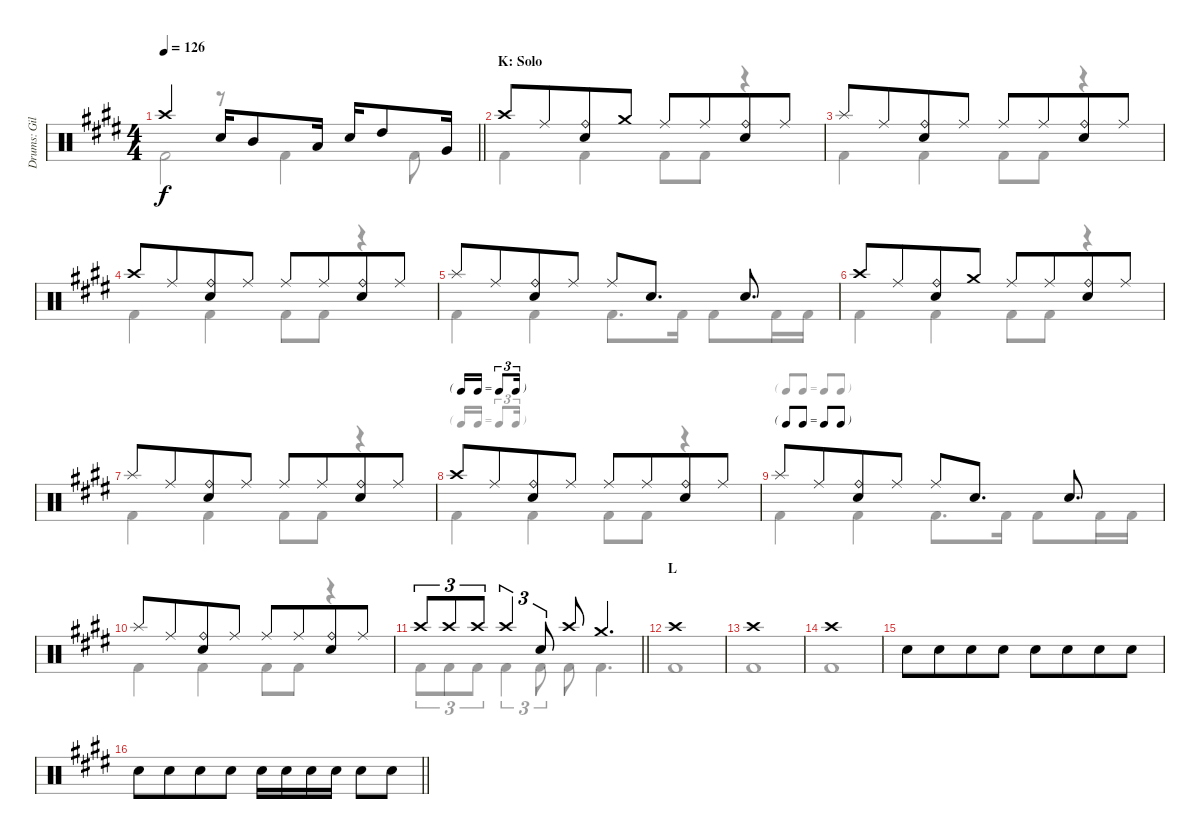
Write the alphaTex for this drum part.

\track ("Drums: Gil" "Drums: Gil") {instrument percussion}
\staff {score}
\articulation defaults
\voice
\ts (4 4)
\tempo 126
\clef neutral
\barLineRight lightlight
\ks e "Crash high (hit)".2{dy f} "Snare (hit) 2".16 "Mid Tom (hit)".8 "Low Tom (hit)".16 "Snare (hit) 2".16 "High Tom (hit)".8 "Very Low Tom (hit)".16
|
\section ("" "K: Solo")
"Crash high (hit)".8 "Ride (middle)".8{beam merge} ("Ride (bell)" "Snare (hit) 2").8 "Crash medium (hit)".8 "Ride (middle)".8 "Ride (middle)".8{beam merge} ("Ride (bell)" "Snare (hit) 2").8 "Ride (middle)".8 |
"Splash (hit)".8 "Ride (middle)".8{beam merge} ("Ride (bell)" "Snare (hit) 2").8 "Ride (middle)".8 "Ride (middle)".8 "Ride (middle)".8{beam merge} ("Ride (bell)" "Snare (hit) 2").8 "Ride (middle)".8 |
"Crash high (hit)".8 "Ride (middle)".8{beam merge} ("Ride (bell)" "Snare (hit) 2").8 "Ride (middle)".8 "Ride (middle)".8 "Ride (middle)".8{beam merge} ("Ride (bell)" "Snare (hit) 2").8 "Ride (middle)".8 |
"Splash (hit)".8 "Ride (middle)".8{beam merge} ("Ride (bell)" "Snare (hit) 2").8 "Ride (middle)".8 "Ride (middle)".8 "Snare (hit) 2".8{d} "Snare (hit) 2".8{d} |
"Crash high (hit)".8 "Ride (middle)".8{beam merge} ("Ride (bell)" "Snare (hit) 2").8 "Crash medium (hit)".8 "Ride (middle)".8 "Ride (middle)".8{beam merge} ("Ride (bell)" "Snare (hit) 2").8 "Ride (middle)".8 |
"Splash (hit)".8 "Ride (middle)".8{beam merge} ("Ride (bell)" "Snare (hit) 2").8 "Ride (middle)".8 "Ride (middle)".8 "Ride (middle)".8{beam merge} ("Ride (bell)" "Snare (hit) 2").8 "Ride (middle)".8 |
\tf triplet16th "Crash high (hit)".8 "Ride (middle)".8{beam merge}
("Ride (bell)" "Snare (hit) 2").8 "Ride (middle)".8 "Ride (middle)".8 "Ride (middle)".8{beam merge} ("Ride (bell)" "Snare (hit) 2").8 "Ride (middle)".8 |
\tf none "Splash (hit)".8 "Ride (middle)".8{beam merge}
("Ride (bell)" "Snare (hit) 2").8 "Ride (middle)".8 "Ride (middle)".8 "Snare (hit) 2".8{d} "Snare (hit) 2".8{d} |
"Splash (hit)".8 "Ride (middle)".8{beam merge} ("Ride (bell)" "Snare (hit) 2").8 "Ride (middle)".8 "Ride (middle)".8 "Ride (middle)".8{beam merge} ("Ride (bell)" "Snare (hit) 2").8 "Ride (middle)".8 |
\barLineRight lightlight "Crash high (hit)".8{tu (3 2)} "Crash high (hit)".8{tu (3 2)} "Crash high (hit)".8{tu (3 2)} "Crash high (hit)".4{tu (3 2)} "Snare (hit) 2".8{tu (3 2)} "Crash high (hit)".8 "Crash medium (hit)".4{d}
|
\section ("" "L")
"Crash high (hit)".1 |
"Crash high (hit)".1 |
"Crash high (hit)".1 |
"Snare (hit) 2".8{volume 0} "Snare (hit) 2".8{volume 12 beam merge} "Snare (hit) 2".8 "Snare (hit) 2".8 "Snare (hit) 2".8 "Snare (hit) 2".8{beam merge} "Snare (hit) 2".8 "Snare (hit) 2".8 |
\barLineRight lightlight "Snare (hit) 2".8 "Snare (hit) 2".8{beam merge} "Snare (hit) 2".8 "Snare (hit) 2".8 "Snare (hit) 2".16 "Snare (hit) 2".16{beam merge} "Snare (hit) 2".16 "Snare (hit) 2".16 "Snare (hit) 2".8{beam merge} "Snare (hit) 2".8
\voice
\clef neutral
\ottava regular
\simile none
\barLineRight lightlight
\ks e "Kick (hit) 2".2{dy f}
r.8 "Kick (hit) 2".4 "Kick (hit) 2".8 |
"Kick (hit) 2".4 "Kick (hit) 2".4 "Kick (hit) 2".8 "Kick (hit) 2".8 r.4 |
"Kick (hit) 2".4 "Kick (hit) 2".4 "Kick (hit) 2".8 "Kick (hit) 2".8 r.4 |
"Kick (hit) 2".4 "Kick (hit) 2".4 "Kick (hit) 2".8 "Kick (hit) 2".8 r.4 |
"Kick (hit) 2".4 "Kick (hit) 2".4 "Kick (hit) 2".8{d} "Kick (hit) 2".16 "Kick (hit) 2".8 "Kick (hit) 2".16 "Kick (hit) 2".16 |
"Kick (hit) 2".4 "Kick (hit) 2".4 "Kick (hit) 2".8 "Kick (hit) 2".8 r.4 |
"Kick (hit) 2".4 "Kick (hit) 2".4 "Kick (hit) 2".8 "Kick (hit) 2".8 r.4 |
"Kick (hit) 2".4 "Kick (hit) 2".4 "Kick (hit) 2".8 "Kick (hit) 2".8 r.4 |
"Kick (hit) 2".4 "Kick (hit) 2".4 "Kick (hit) 2".8{d} "Kick (hit) 2".16 "Kick (hit) 2".8 "Kick (hit) 2".16 "Kick (hit) 2".16 |
"Kick (hit) 2".4 "Kick (hit) 2".4 "Kick (hit) 2".8 "Kick (hit) 2".8 r.4 |
\barLineRight lightlight "Kick (hit) 2".8{tu (3 2)} "Kick (hit) 2".8{tu (3 2)} "Kick (hit) 2".8{tu (3 2)} "Kick (hit) 2".4{tu (3 2)} "Kick (hit) 2".8{tu (3 2)} "Kick (hit) 2".8 "Kick (hit) 2".4{d}
|
"Kick (hit) 2".1 |
"Kick (hit) 2".1 |
"Kick (hit) 2".1 |
|
\barLineRight lightlight
